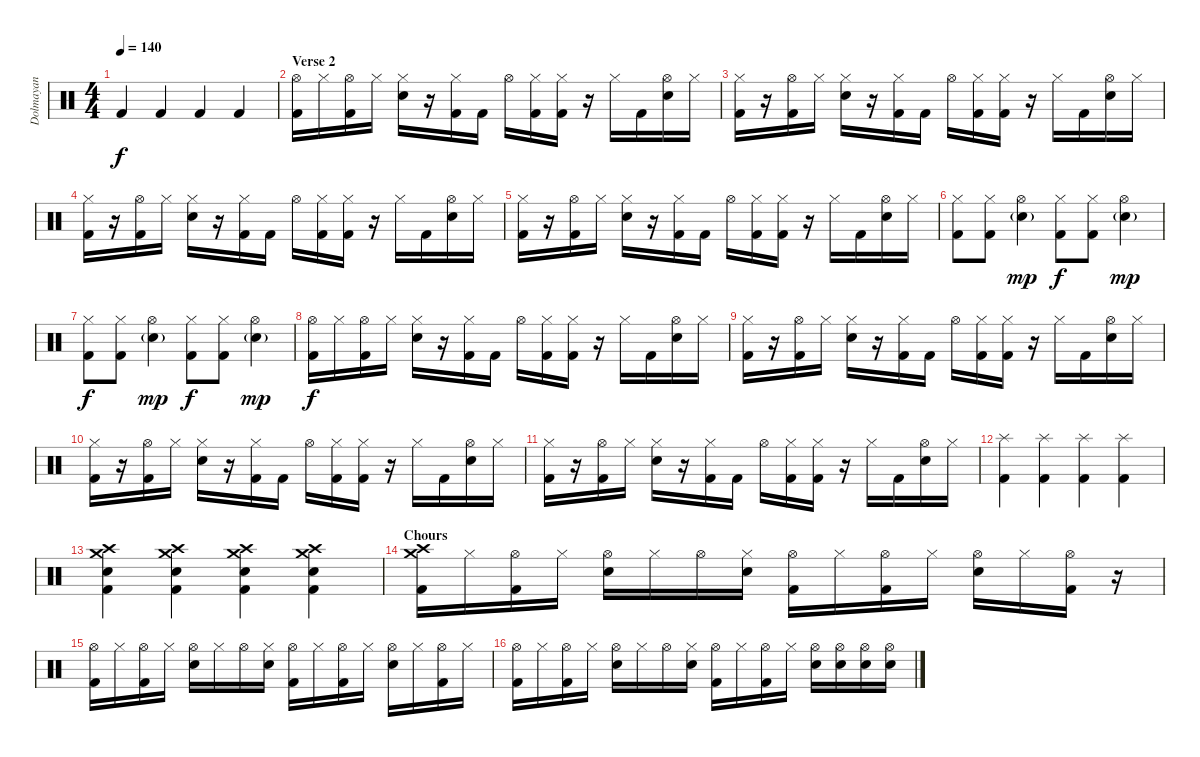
\track ("Dolmayan" "Dolmayan") {instrument percussion}
\staff {score}
\articulation defaults
\ts (4 4)
\tempo 140
\clef neutral
\ks c "Kick (hit) 2".4{dy f} "Kick (hit) 2".4 "Kick (hit) 2".4 "Kick (hit) 2".4
|
\section ("" "Verse 2")
("Hi-Hat (open)" "Kick (hit) 2").16 "Hi-Hat (closed)".16 ("Hi-Hat (open)" "Kick (hit) 2").16 "Hi-Hat (closed)".16 ("Hi-Hat (closed)" "Electric Snare (hit)").16 r.16 ("Hi-Hat (closed)" "Kick (hit) 2").16 "Kick (hit) 2".16 "Hi-Hat (open)".16 ("Hi-Hat (closed)" "Kick (hit) 2").16 ("Hi-Hat (closed)" "Kick (hit) 2").16 r.16 "Hi-Hat (closed)".16 "Kick (hit) 2".16 ("Hi-Hat (open)" "Electric Snare (hit)").16 "Hi-Hat (closed)".16 |
("Hi-Hat (closed)" "Kick (hit) 2").16 r.16 ("Hi-Hat (open)" "Kick (hit) 2").16 "Hi-Hat (closed)".16 ("Hi-Hat (closed)" "Electric Snare (hit)").16 r.16 ("Hi-Hat (closed)" "Kick (hit) 2").16 "Kick (hit) 2".16 "Hi-Hat (open)".16 ("Hi-Hat (closed)" "Kick (hit) 2").16 ("Hi-Hat (closed)" "Kick (hit) 2").16 r.16 "Hi-Hat (closed)".16 "Kick (hit) 2".16 ("Hi-Hat (open)" "Electric Snare (hit)").16 "Hi-Hat (closed)".16 |
("Hi-Hat (closed)" "Kick (hit) 2").16 r.16 ("Hi-Hat (open)" "Kick (hit) 2").16 "Hi-Hat (closed)".16 ("Hi-Hat (closed)" "Electric Snare (hit)").16 r.16 ("Hi-Hat (closed)" "Kick (hit) 2").16 "Kick (hit) 2".16 "Hi-Hat (open)".16 ("Hi-Hat (closed)" "Kick (hit) 2").16 ("Hi-Hat (closed)" "Kick (hit) 2").16 r.16 "Hi-Hat (closed)".16 "Kick (hit) 2".16 ("Hi-Hat (open)" "Electric Snare (hit)").16 "Hi-Hat (closed)".16 |
("Hi-Hat (closed)" "Kick (hit) 2").16 r.16 ("Hi-Hat (open)" "Kick (hit) 2").16 "Hi-Hat (closed)".16 ("Hi-Hat (closed)" "Electric Snare (hit)").16 r.16 ("Hi-Hat (closed)" "Kick (hit) 2").16 "Kick (hit) 2".16 "Hi-Hat (open)".16 ("Hi-Hat (closed)" "Kick (hit) 2").16 ("Hi-Hat (closed)" "Kick (hit) 2").16 r.16 "Hi-Hat (closed)".16 "Kick (hit) 2".16 ("Hi-Hat (open)" "Electric Snare (hit)").16 "Hi-Hat (closed)".16 |
("Hi-Hat (closed)" "Kick (hit) 2").8 ("Hi-Hat (closed)" "Kick (hit) 2").8 ("Hi-Hat (open)" "Electric Snare (hit)"{g}).4{dy mp} ("Hi-Hat (closed)" "Kick (hit) 2").8{dy f} ("Hi-Hat (closed)" "Kick (hit) 2").8 ("Hi-Hat (open)" "Electric Snare (hit)"{g}).4{dy mp} |
("Hi-Hat (closed)" "Kick (hit) 2").8{dy f} ("Hi-Hat (closed)" "Kick (hit) 2").8 ("Hi-Hat (open)" "Electric Snare (hit)"{g}).4{dy mp} ("Hi-Hat (closed)" "Kick (hit) 2").8{dy f} ("Hi-Hat (closed)" "Kick (hit) 2").8 ("Hi-Hat (open)" "Electric Snare (hit)"{g}).4{dy mp} |
("Hi-Hat (open)" "Kick (hit) 2").16{dy f} "Hi-Hat (closed)".16 ("Hi-Hat (open)" "Kick (hit) 2").16 "Hi-Hat (closed)".16 ("Hi-Hat (closed)" "Electric Snare (hit)").16 r.16 ("Hi-Hat (closed)" "Kick (hit) 2").16 "Kick (hit) 2".16 "Hi-Hat (open)".16 ("Hi-Hat (closed)" "Kick (hit) 2").16 ("Hi-Hat (closed)" "Kick (hit) 2").16 r.16 "Hi-Hat (closed)".16 "Kick (hit) 2".16 ("Hi-Hat (open)" "Electric Snare (hit)").16 "Hi-Hat (closed)".16 |
("Hi-Hat (closed)" "Kick (hit) 2").16 r.16 ("Hi-Hat (open)" "Kick (hit) 2").16 "Hi-Hat (closed)".16 ("Hi-Hat (closed)" "Electric Snare (hit)").16 r.16 ("Hi-Hat (closed)" "Kick (hit) 2").16 "Kick (hit) 2".16 "Hi-Hat (open)".16 ("Hi-Hat (closed)" "Kick (hit) 2").16 ("Hi-Hat (closed)" "Kick (hit) 2").16 r.16 "Hi-Hat (closed)".16 "Kick (hit) 2".16 ("Hi-Hat (open)" "Electric Snare (hit)").16 "Hi-Hat (closed)".16 |
("Hi-Hat (closed)" "Kick (hit) 2").16 r.16 ("Hi-Hat (open)" "Kick (hit) 2").16 "Hi-Hat (closed)".16 ("Hi-Hat (closed)" "Electric Snare (hit)").16 r.16 ("Hi-Hat (closed)" "Kick (hit) 2").16 "Kick (hit) 2".16 "Hi-Hat (open)".16 ("Hi-Hat (closed)" "Kick (hit) 2").16 ("Hi-Hat (closed)" "Kick (hit) 2").16 r.16 "Hi-Hat (closed)".16 "Kick (hit) 2".16 ("Hi-Hat (open)" "Electric Snare (hit)").16 "Hi-Hat (closed)".16 |
("Hi-Hat (closed)" "Kick (hit) 2").16 r.16 ("Hi-Hat (open)" "Kick (hit) 2").16 "Hi-Hat (closed)".16 ("Hi-Hat (closed)" "Electric Snare (hit)").16 r.16 ("Hi-Hat (closed)" "Kick (hit) 2").16 "Kick (hit) 2".16 "Hi-Hat (open)".16 ("Hi-Hat (closed)" "Kick (hit) 2").16 ("Hi-Hat (closed)" "Kick (hit) 2").16 r.16 "Hi-Hat (closed)".16 "Kick (hit) 2".16 ("Hi-Hat (open)" "Electric Snare (hit)").16 "Hi-Hat (closed)".16 |
("Splash (hit)" "Kick (hit) 2").4 ("Splash (hit)" "Kick (hit) 2").4 ("Splash (hit)" "Kick (hit) 2").4 ("Splash (hit)" "Kick (hit) 2").4 |
("Crash high (hit)" "Crash medium (hit)" "Electric Snare (hit)" "Kick (hit) 2").4 ("Crash high (hit)" "Crash medium (hit)" "Electric Snare (hit)" "Kick (hit) 2").4 ("Crash high (hit)" "Crash medium (hit)" "Electric Snare (hit)" "Kick (hit) 2").4 ("Crash high (hit)" "Crash medium (hit)" "Electric Snare (hit)" "Kick (hit) 2").4 |
\section ("" "Chours")
("Crash high (hit)" "Crash medium (hit)" "Kick (hit) 2").16 "Hi-Hat (closed)".16 ("Hi-Hat (open)" "Kick (hit) 2").16 "Hi-Hat (closed)".16 ("Hi-Hat (open)" "Electric Snare (hit)").16 "Hi-Hat (closed)".16 "Hi-Hat (open)".16 ("Hi-Hat (closed)" "Electric Snare (hit)").16 ("Hi-Hat (open)" "Kick (hit) 2").16 "Hi-Hat (closed)".16 ("Hi-Hat (open)" "Kick (hit) 2").16 "Hi-Hat (closed)".16 ("Hi-Hat (open)" "Electric Snare (hit)").16 "Hi-Hat (closed)".16 ("Hi-Hat (open)" "Kick (hit) 2").16 r.16 |
("Hi-Hat (open)" "Kick (hit) 2").16 "Hi-Hat (closed)".16 ("Hi-Hat (open)" "Kick (hit) 2").16 "Hi-Hat (closed)".16 ("Hi-Hat (open)" "Electric Snare (hit)").16 "Hi-Hat (closed)".16 "Hi-Hat (open)".16 ("Hi-Hat (closed)" "Electric Snare (hit)").16 ("Hi-Hat (open)" "Kick (hit) 2").16 "Hi-Hat (closed)".16 ("Hi-Hat (open)" "Kick (hit) 2").16 "Hi-Hat (closed)".16 ("Hi-Hat (open)" "Electric Snare (hit)").16 "Hi-Hat (closed)".16 ("Hi-Hat (open)" "Kick (hit) 2").16 "Hi-Hat (closed)".16 |
("Hi-Hat (open)" "Kick (hit) 2").16 "Hi-Hat (closed)".16 ("Hi-Hat (open)" "Kick (hit) 2").16 "Hi-Hat (closed)".16 ("Hi-Hat (open)" "Electric Snare (hit)").16 "Hi-Hat (closed)".16 "Hi-Hat (open)".16 ("Hi-Hat (closed)" "Electric Snare (hit)").16 ("Hi-Hat (open)" "Kick (hit) 2").16 "Hi-Hat (closed)".16 ("Hi-Hat (open)" "Kick (hit) 2").16 "Hi-Hat (closed)".16 ("Hi-Hat (open)" "Electric Snare (hit)").16 ("Hi-Hat (open)" "Electric Snare (hit)").16 ("Hi-Hat (open)" "Electric Snare (hit)").16 ("Hi-Hat (open)" "Electric Snare (hit)").16
